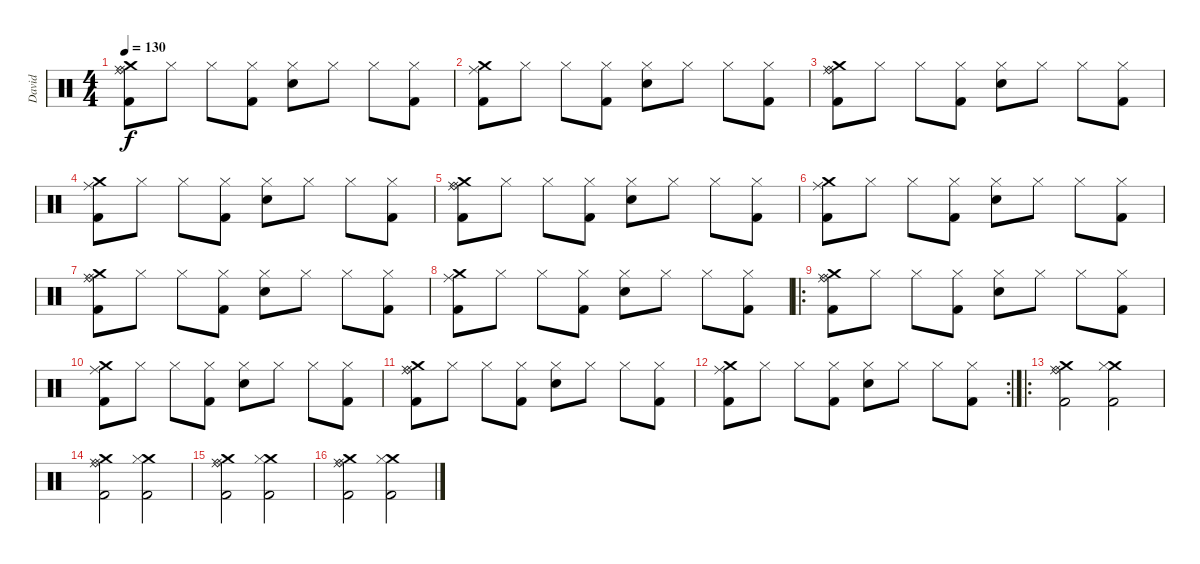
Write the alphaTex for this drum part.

\track ("David" "David") {instrument percussion}
\staff {score}
\articulation defaults
\ts (4 4)
\tempo 130
\clef neutral
\ks c
("Crash medium (hit)" "Ride (middle)" "Ride (bell)" "Kick (hit) 2").8{dy f} "Hi-Hat (closed)".8 "Hi-Hat (closed)".8 ("Hi-Hat (closed)" "Kick (hit) 2").8 ("Hi-Hat (closed)" "Electric Snare (hit)").8 "Hi-Hat (closed)".8 "Hi-Hat (closed)".8 ("Hi-Hat (closed)" "Kick (hit) 2").8 |
("Crash medium (hit)" "Ride (middle)" "Kick (hit) 2").8 "Hi-Hat (closed)".8 "Hi-Hat (closed)".8 ("Hi-Hat (closed)" "Kick (hit) 2").8 ("Hi-Hat (closed)" "Electric Snare (hit)").8 "Hi-Hat (closed)".8 "Hi-Hat (closed)".8 ("Hi-Hat (closed)" "Kick (hit) 2").8 |
("Crash medium (hit)" "Ride (middle)" "Ride (bell)" "Kick (hit) 2").8 "Hi-Hat (closed)".8 "Hi-Hat (closed)".8 ("Hi-Hat (closed)" "Kick (hit) 2").8 ("Hi-Hat (closed)" "Electric Snare (hit)").8 "Hi-Hat (closed)".8 "Hi-Hat (closed)".8 ("Hi-Hat (closed)" "Kick (hit) 2").8 |
("Crash medium (hit)" "Ride (middle)" "Kick (hit) 2").8 "Hi-Hat (closed)".8 "Hi-Hat (closed)".8 ("Hi-Hat (closed)" "Kick (hit) 2").8 ("Hi-Hat (closed)" "Electric Snare (hit)").8 "Hi-Hat (closed)".8 "Hi-Hat (closed)".8 ("Hi-Hat (closed)" "Kick (hit) 2").8 |
("Crash medium (hit)" "Ride (middle)" "Ride (bell)" "Kick (hit) 2").8 "Hi-Hat (closed)".8 "Hi-Hat (closed)".8 ("Hi-Hat (closed)" "Kick (hit) 2").8 ("Hi-Hat (closed)" "Electric Snare (hit)").8 "Hi-Hat (closed)".8 "Hi-Hat (closed)".8 ("Hi-Hat (closed)" "Kick (hit) 2").8 |
("Crash medium (hit)" "Ride (middle)" "Kick (hit) 2").8 "Hi-Hat (closed)".8 "Hi-Hat (closed)".8 ("Hi-Hat (closed)" "Kick (hit) 2").8 ("Hi-Hat (closed)" "Electric Snare (hit)").8 "Hi-Hat (closed)".8 "Hi-Hat (closed)".8 ("Hi-Hat (closed)" "Kick (hit) 2").8 |
("Crash medium (hit)" "Ride (middle)" "Ride (bell)" "Kick (hit) 2").8 "Hi-Hat (closed)".8 "Hi-Hat (closed)".8 ("Hi-Hat (closed)" "Kick (hit) 2").8 ("Hi-Hat (closed)" "Electric Snare (hit)").8 "Hi-Hat (closed)".8 "Hi-Hat (closed)".8 ("Hi-Hat (closed)" "Kick (hit) 2").8 |
("Crash medium (hit)" "Ride (middle)" "Kick (hit) 2").8 "Hi-Hat (closed)".8 "Hi-Hat (closed)".8 ("Hi-Hat (closed)" "Kick (hit) 2").8 ("Hi-Hat (closed)" "Electric Snare (hit)").8 "Hi-Hat (closed)".8 "Hi-Hat (closed)".8 ("Hi-Hat (closed)" "Kick (hit) 2").8 |
\ro
("Crash medium (hit)" "Ride (middle)" "Ride (bell)" "Kick (hit) 2").8 "Hi-Hat (closed)".8 "Hi-Hat (closed)".8 ("Hi-Hat (closed)" "Kick (hit) 2").8 ("Hi-Hat (closed)" "Electric Snare (hit)").8 "Hi-Hat (closed)".8 "Hi-Hat (closed)".8 ("Hi-Hat (closed)" "Kick (hit) 2").8 |
("Crash medium (hit)" "Ride (middle)" "Kick (hit) 2").8 "Hi-Hat (closed)".8 "Hi-Hat (closed)".8 ("Hi-Hat (closed)" "Kick (hit) 2").8 ("Hi-Hat (closed)" "Electric Snare (hit)").8 "Hi-Hat (closed)".8 "Hi-Hat (closed)".8 ("Hi-Hat (closed)" "Kick (hit) 2").8 |
("Crash medium (hit)" "Ride (middle)" "Ride (bell)" "Kick (hit) 2").8 "Hi-Hat (closed)".8 "Hi-Hat (closed)".8 ("Hi-Hat (closed)" "Kick (hit) 2").8 ("Hi-Hat (closed)" "Electric Snare (hit)").8 "Hi-Hat (closed)".8 "Hi-Hat (closed)".8 ("Hi-Hat (closed)" "Kick (hit) 2").8 |
\rc 2
("Crash medium (hit)" "Ride (middle)" "Kick (hit) 2").8 "Hi-Hat (closed)".8 "Hi-Hat (closed)".8 ("Hi-Hat (closed)" "Kick (hit) 2").8 ("Hi-Hat (closed)" "Electric Snare (hit)").8 "Hi-Hat (closed)".8 "Hi-Hat (closed)".8 ("Hi-Hat (closed)" "Kick (hit) 2").8 |
\ro
("Crash medium (hit)" "Ride (middle)" "Ride (bell)" "Kick (hit) 2").2 ("Crash medium (hit)" "Hi-Hat (closed)" "Kick (hit) 2").2 |
("Crash medium (hit)" "Ride (middle)" "Ride (bell)" "Kick (hit) 2").2 ("Crash medium (hit)" "Hi-Hat (closed)" "Kick (hit) 2").2 |
("Crash medium (hit)" "Ride (middle)" "Ride (bell)" "Kick (hit) 2").2 ("Crash medium (hit)" "Hi-Hat (closed)" "Kick (hit) 2").2 |
("Crash medium (hit)" "Ride (middle)" "Ride (bell)" "Kick (hit) 2").2 ("Crash medium (hit)" "Hi-Hat (closed)" "Kick (hit) 2").2
